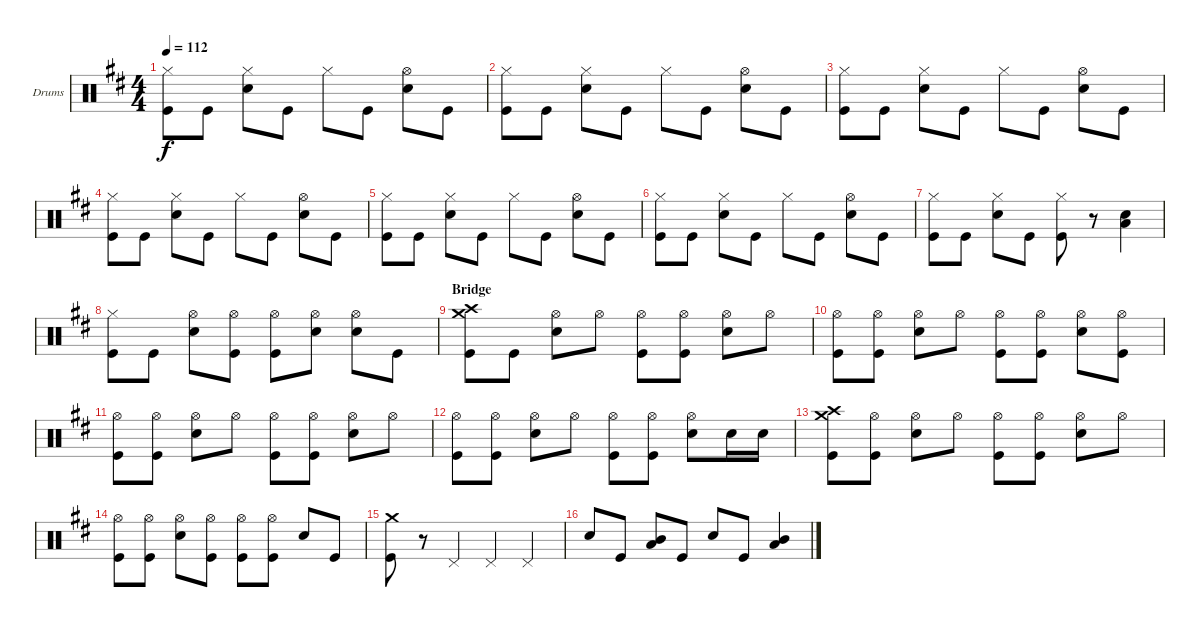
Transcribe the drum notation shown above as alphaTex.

\defaultSystemsLayout 4
\bracketExtendMode groupsimilarinstruments
\firstSystemTrackNameOrientation horizontal
\otherSystemsTrackNameOrientation horizontal
\track ("Drumkit" "Drums") {instrument percussion}
\staff {score}
\articulation defaults
\ts (4 4)
\tempo 112
\clef neutral
\scale
1.05044
\ks d
("Hi-Hat (closed)" "Kick (hit)").8{dy f} "Kick (hit)".8 ("Hi-Hat (closed)" "Snare (hit) 2").8 "Kick (hit)".8 "Hi-Hat (closed)".8 "Kick (hit)".8 ("Hi-Hat (open)" "Snare (hit) 2").8 "Kick (hit)".8 |
\scale
0.949559 ("Hi-Hat (closed)" "Kick (hit)").8 "Kick (hit)".8 ("Hi-Hat (closed)" "Snare (hit) 2").8 "Kick (hit)".8 "Hi-Hat (closed)".8 "Kick (hit)".8 ("Hi-Hat (open)" "Snare (hit) 2").8 "Kick (hit)".8 |
\scale
1.05044 ("Hi-Hat (closed)" "Kick (hit)").8 "Kick (hit)".8 ("Hi-Hat (closed)" "Snare (hit) 2").8 "Kick (hit)".8 "Hi-Hat (closed)".8 "Kick (hit)".8 ("Hi-Hat (open)" "Snare (hit) 2").8 "Kick (hit)".8 |
\scale
0.949559 ("Hi-Hat (closed)" "Kick (hit)").8 "Kick (hit)".8 ("Hi-Hat (closed)" "Snare (hit) 2").8 "Kick (hit)".8 "Hi-Hat (closed)".8 "Kick (hit)".8 ("Hi-Hat (open)" "Snare (hit) 2").8 "Kick (hit)".8 |
\scale
1.05044 ("Hi-Hat (closed)" "Kick (hit)").8 "Kick (hit)".8 ("Hi-Hat (closed)" "Snare (hit) 2").8 "Kick (hit)".8 "Hi-Hat (closed)".8 "Kick (hit)".8 ("Hi-Hat (open)" "Snare (hit) 2").8 "Kick (hit)".8 |
\scale
0.949559 ("Hi-Hat (closed)" "Kick (hit)").8 "Kick (hit)".8 ("Hi-Hat (closed)" "Snare (hit) 2").8 "Kick (hit)".8 "Hi-Hat (closed)".8 "Kick (hit)".8 ("Hi-Hat (open)" "Snare (hit) 2").8 "Kick (hit)".8 |
\scale
1.05044 ("Hi-Hat (closed)" "Kick (hit)").8 "Kick (hit)".8 ("Hi-Hat (closed)" "Snare (hit) 2").8 "Kick (hit)".8 ("Hi-Hat (closed)" "Kick (hit)").8 r.8 ("Snare (hit) 2" "Low Tom (hit)").4 |
\scale
0.949559 ("Hi-Hat (closed)" "Kick (hit)").8 "Kick (hit)".8 ("Hi-Hat (open)" "Snare (hit) 2").8 ("Hi-Hat (open)" "Kick (hit)").8 ("Hi-Hat (open)" "Kick (hit)").8 ("Hi-Hat (open)" "Snare (hit) 2").8 ("Hi-Hat (open)" "Snare (hit) 2").8 "Kick (hit)".8 |
\section ("" "Bridge")
\scale
1.05044 ("Crash medium (hit)" "Crash high (hit)" "Kick (hit)").8 "Kick (hit)".8 ("Hi-Hat (open)" "Snare (hit) 2").8 "Hi-Hat (open)".8 ("Hi-Hat (open)" "Kick (hit)").8 ("Hi-Hat (open)" "Kick (hit)").8 ("Hi-Hat (open)" "Snare (hit) 2").8 "Hi-Hat (open)".8 |
\scale
0.949559 ("Hi-Hat (open)" "Kick (hit)").8 ("Hi-Hat (open)" "Kick (hit)").8 ("Hi-Hat (open)" "Snare (hit) 2").8 "Hi-Hat (open)".8 ("Hi-Hat (open)" "Kick (hit)").8 ("Hi-Hat (open)" "Kick (hit)").8 ("Hi-Hat (open)" "Snare (hit) 2").8 ("Hi-Hat (open)" "Kick (hit)").8 |
\scale
1.05044 ("Hi-Hat (open)" "Kick (hit)").8 ("Hi-Hat (open)" "Kick (hit)").8 ("Hi-Hat (open)" "Snare (hit) 2").8 "Hi-Hat (open)".8 ("Hi-Hat (open)" "Kick (hit)").8 ("Hi-Hat (open)" "Kick (hit)").8 ("Hi-Hat (open)" "Snare (hit) 2").8 "Hi-Hat (open)".8 |
\scale
0.949559 ("Hi-Hat (open)" "Kick (hit)").8 ("Hi-Hat (open)" "Kick (hit)").8 ("Hi-Hat (open)" "Snare (hit) 2").8 "Hi-Hat (open)".8 ("Hi-Hat (open)" "Kick (hit)").8 ("Hi-Hat (open)" "Kick (hit)").8 ("Hi-Hat (open)" "Snare (hit) 2").8 "Snare (hit) 2".16 "Snare (hit) 2".16 |
\scale
1.05044 ("Crash medium (hit)" "Crash high (hit)" "Kick (hit)").8 ("Hi-Hat (open)" "Kick (hit)").8 ("Hi-Hat (open)" "Snare (hit) 2").8 "Hi-Hat (open)".8 ("Hi-Hat (open)" "Kick (hit)").8 ("Hi-Hat (open)" "Kick (hit)").8 ("Hi-Hat (open)" "Snare (hit) 2").8 "Hi-Hat (open)".8 |
\scale
0.949559 ("Hi-Hat (open)" "Kick (hit)").8 ("Hi-Hat (open)" "Kick (hit)").8 ("Hi-Hat (open)" "Snare (hit) 2").8 ("Hi-Hat (open)" "Kick (hit)").8 ("Hi-Hat (open)" "Kick (hit)").8 ("Hi-Hat (open)" "Kick (hit)").8 "Snare (hit) 2".8 "Kick (hit)".8 |
\scale
1.05044 ("Crash medium (hit)" "Kick (hit)").8 r.8 "Pedal Hi-Hat (hit)".4 "Pedal Hi-Hat (hit)".4 "Pedal Hi-Hat (hit)".4 |
\scale
0.949559 "Snare (hit) 2".8 "Kick (hit)".8 ("Mid Tom (hit)" "Low Tom (hit)").8 "Kick (hit)".8 "Snare (hit) 2".8 "Kick (hit)".8 ("Mid Tom (hit)" "Low Tom (hit)").4
